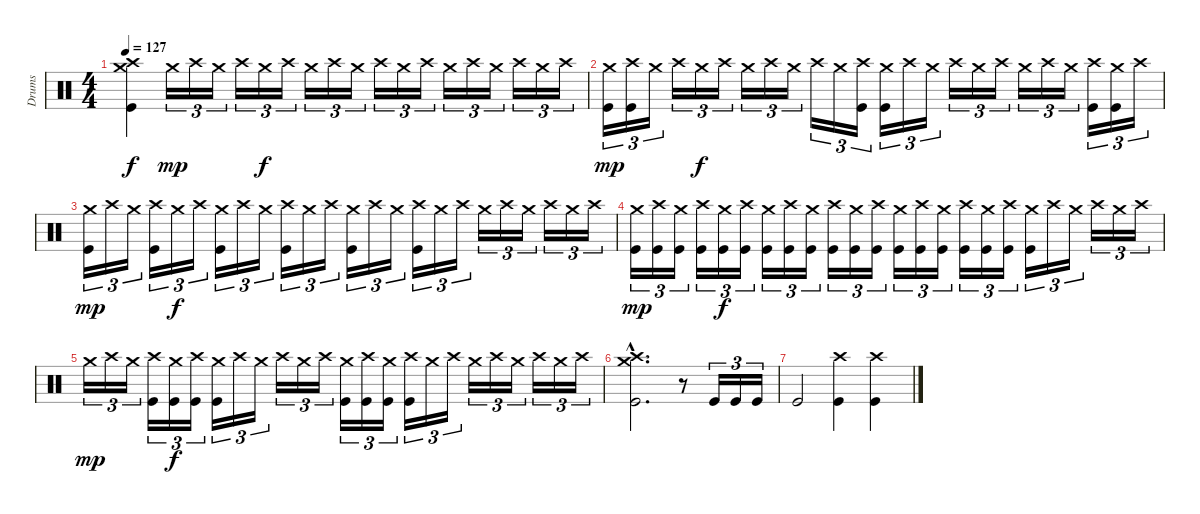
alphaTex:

\track ("Drums" "Drums") {instrument percussion}
\staff {score}
\articulation defaults
\ts (4 4)
\tempo 127
\clef neutral
\ks c
("Crash high (hit)" "Crash medium (hit)" "Kick (hit)").4{dy f} "Crash medium (hit)".16{tu (3 2) dy mp} "Crash high (hit)".16{tu (3 2)} "Crash medium (hit)".16{tu (3 2)} "Crash high (hit)".16{tu (3 2)} "Crash medium (hit)".16{tu (3 2) dy f} "Crash high (hit)".16{tu (3 2)} "Crash medium (hit)".16{tu (3 2)} "Crash high (hit)".16{tu (3 2)} "Crash medium (hit)".16{tu (3 2)} "Crash high (hit)".16{tu (3 2)} "Crash medium (hit)".16{tu (3 2)} "Crash high (hit)".16{tu (3 2)} "Crash medium (hit)".16{tu (3 2)} "Crash high (hit)".16{tu (3 2)} "Crash medium (hit)".16{tu (3 2)} "Crash high (hit)".16{tu (3 2)} "Crash medium (hit)".16{tu (3 2)} "Crash high (hit)".16{tu (3 2)} |
("Crash medium (hit)" "Kick (hit)").16{tu (3 2) dy mp} ("Crash high (hit)" "Kick (hit)").16{tu (3 2)} "Crash medium (hit)".16{tu (3 2)} "Crash high (hit)".16{tu (3 2)} "Crash medium (hit)".16{tu (3 2) dy f} "Crash high (hit)".16{tu (3 2)} "Crash medium (hit)".16{tu (3 2)} "Crash high (hit)".16{tu (3 2)} "Crash medium (hit)".16{tu (3 2)} "Crash high (hit)".16{tu (3 2)} "Crash medium (hit)".16{tu (3 2)} ("Crash high (hit)" "Kick (hit)").16{tu (3 2)} ("Crash medium (hit)" "Kick (hit)").16{tu (3 2)} "Crash high (hit)".16{tu (3 2)} "Crash medium (hit)".16{tu (3 2)} "Crash high (hit)".16{tu (3 2)} "Crash medium (hit)".16{tu (3 2)} "Crash high (hit)".16{tu (3 2)} "Crash medium (hit)".16{tu (3 2)} "Crash high (hit)".16{tu (3 2)} "Crash medium (hit)".16{tu (3 2)} ("Crash high (hit)" "Kick (hit)").16{tu (3 2)} ("Crash medium (hit)" "Kick (hit)").16{tu (3 2)} "Crash high (hit)".16{tu (3 2)} |
("Crash medium (hit)" "Kick (hit)").16{tu (3 2) dy mp} "Crash high (hit)".16{tu (3 2)} "Crash medium (hit)".16{tu (3 2)} ("Crash high (hit)" "Kick (hit)").16{tu (3 2)} "Crash medium (hit)".16{tu (3 2) dy f} "Crash high (hit)".16{tu (3 2)} ("Crash medium (hit)" "Kick (hit)").16{tu (3 2)} "Crash high (hit)".16{tu (3 2)} "Crash medium (hit)".16{tu (3 2)} ("Crash high (hit)" "Kick (hit)").16{tu (3 2)} "Crash medium (hit)".16{tu (3 2)} "Crash high (hit)".16{tu (3 2)} ("Crash medium (hit)" "Kick (hit)").16{tu (3 2)} "Crash high (hit)".16{tu (3 2)} "Crash medium (hit)".16{tu (3 2)} ("Crash high (hit)" "Kick (hit)").16{tu (3 2)} "Crash medium (hit)".16{tu (3 2)} "Crash high (hit)".16{tu (3 2)} "Crash medium (hit)".16{tu (3 2)} "Crash high (hit)".16{tu (3 2)} "Crash medium (hit)".16{tu (3 2)} "Crash high (hit)".16{tu (3 2)} "Crash medium (hit)".16{tu (3 2)} "Crash high (hit)".16{tu (3 2)} |
("Crash medium (hit)" "Kick (hit)").16{tu (3 2) dy mp} ("Crash high (hit)" "Kick (hit)").16{tu (3 2)} ("Crash medium (hit)" "Kick (hit)").16{tu (3 2)} ("Crash high (hit)" "Kick (hit)").16{tu (3 2)} ("Crash medium (hit)" "Kick (hit)").16{tu (3 2) dy f} ("Crash high (hit)" "Kick (hit)").16{tu (3 2)} ("Crash medium (hit)" "Kick (hit)").16{tu (3 2)} ("Crash high (hit)" "Kick (hit)").16{tu (3 2)} ("Crash medium (hit)" "Kick (hit)").16{tu (3 2)} ("Crash high (hit)" "Kick (hit)").16{tu (3 2)} ("Crash medium (hit)" "Kick (hit)").16{tu (3 2)} ("Crash high (hit)" "Kick (hit)").16{tu (3 2)} ("Crash medium (hit)" "Kick (hit)").16{tu (3 2)} ("Crash high (hit)" "Kick (hit)").16{tu (3 2)} ("Crash medium (hit)" "Kick (hit)").16{tu (3 2)} ("Crash high (hit)" "Kick (hit)").16{tu (3 2)} ("Crash medium (hit)" "Kick (hit)").16{tu (3 2)} ("Crash high (hit)" "Kick (hit)").16{tu (3 2)} ("Crash medium (hit)" "Kick (hit)").16{tu (3 2)} "Crash high (hit)".16{tu (3 2)} "Crash medium (hit)".16{tu (3 2)} "Crash high (hit)".16{tu (3 2)} "Crash medium (hit)".16{tu (3 2)} "Crash high (hit)".16{tu (3 2)} |
"Crash medium (hit)".16{tu (3 2) dy mp} "Crash high (hit)".16{tu (3 2)} "Crash medium (hit)".16{tu (3 2)} ("Crash high (hit)" "Kick (hit)").16{tu (3 2)} ("Crash medium (hit)" "Kick (hit)").16{tu (3 2) dy f} ("Crash high (hit)" "Kick (hit)").16{tu (3 2)} ("Crash medium (hit)" "Kick (hit)").16{tu (3 2)} "Crash high (hit)".16{tu (3 2)} "Crash medium (hit)".16{tu (3 2)} "Crash high (hit)".16{tu (3 2)} "Crash medium (hit)".16{tu (3 2)} "Crash high (hit)".16{tu (3 2)} ("Crash medium (hit)" "Kick (hit)").16{tu (3 2)} ("Crash high (hit)" "Kick (hit)").16{tu (3 2)} ("Crash medium (hit)" "Kick (hit)").16{tu (3 2)} ("Crash high (hit)" "Kick (hit)").16{tu (3 2)} "Crash medium (hit)".16{tu (3 2)} "Crash high (hit)".16{tu (3 2)} "Crash medium (hit)".16{tu (3 2)} "Crash high (hit)".16{tu (3 2)} "Crash medium (hit)".16{tu (3 2)} "Crash high (hit)".16{tu (3 2)} "Crash medium (hit)".16{tu (3 2)} "Crash high (hit)".16{tu (3 2)} |
("Crash high (hit)"{hac} "Crash medium (hit)"{hac} "Kick (hit)"{hac}).2{d} r.8 "Kick (hit)".16{tu (3 2)} "Kick (hit)".16{tu (3 2)} "Kick (hit)".16{tu (3 2)} |
"Kick (hit)".2 ("Crash high (hit)" "Kick (hit)").4 ("Crash high (hit)" "Kick (hit)").4
